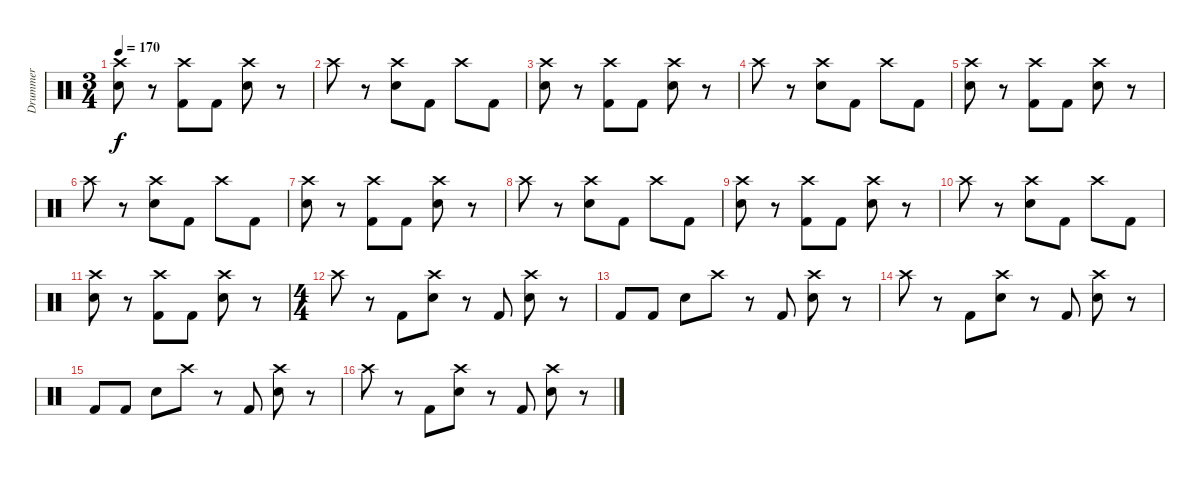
\track ("Drummer" "Drummer") {instrument percussion}
\staff {score}
\articulation defaults
\ts (3 4)
\tempo 170
\clef neutral
\ks c
("Crash high (hit)" "Electric Snare (hit)").8{dy f} r.8 ("Crash high (hit)" "Kick (hit) 2").8 "Kick (hit) 2".8 ("Crash high (hit)" "Electric Snare (hit)").8 r.8 |
"Crash high (hit)".8 r.8 ("Crash high (hit)" "Electric Snare (hit)").8 "Kick (hit) 2".8 "Crash high (hit)".8 "Kick (hit) 2".8 |
("Crash high (hit)" "Electric Snare (hit)").8 r.8 ("Crash high (hit)" "Kick (hit) 2").8 "Kick (hit) 2".8 ("Crash high (hit)" "Electric Snare (hit)").8 r.8 |
"Crash high (hit)".8 r.8 ("Crash high (hit)" "Electric Snare (hit)").8 "Kick (hit) 2".8 "Crash high (hit)".8 "Kick (hit) 2".8 |
("Crash high (hit)" "Electric Snare (hit)").8 r.8 ("Crash high (hit)" "Kick (hit) 2").8 "Kick (hit) 2".8 ("Crash high (hit)" "Electric Snare (hit)").8 r.8 |
"Crash high (hit)".8 r.8 ("Crash high (hit)" "Electric Snare (hit)").8 "Kick (hit) 2".8 "Crash high (hit)".8 "Kick (hit) 2".8 |
("Crash high (hit)" "Electric Snare (hit)").8 r.8 ("Crash high (hit)" "Kick (hit) 2").8 "Kick (hit) 2".8 ("Crash high (hit)" "Electric Snare (hit)").8 r.8 |
"Crash high (hit)".8 r.8 ("Crash high (hit)" "Electric Snare (hit)").8 "Kick (hit) 2".8 "Crash high (hit)".8 "Kick (hit) 2".8 |
("Crash high (hit)" "Electric Snare (hit)").8 r.8 ("Crash high (hit)" "Kick (hit) 2").8 "Kick (hit) 2".8 ("Crash high (hit)" "Electric Snare (hit)").8 r.8 |
"Crash high (hit)".8 r.8 ("Crash high (hit)" "Electric Snare (hit)").8 "Kick (hit) 2".8 "Crash high (hit)".8 "Kick (hit) 2".8 |
("Crash high (hit)" "Electric Snare (hit)").8 r.8 ("Crash high (hit)" "Kick (hit) 2").8 "Kick (hit) 2".8 ("Crash high (hit)" "Electric Snare (hit)").8 r.8 |
\ts (4 4)
"Crash high (hit)".8 r.8 "Kick (hit) 2".8 ("Crash high (hit)" "Electric Snare (hit)").8 r.8 "Kick (hit) 2".8 ("Crash high (hit)" "Electric Snare (hit)").8 r.8 |
"Kick (hit) 2".8 "Kick (hit) 2".8 "Electric Snare (hit)".8 "Crash high (hit)".8 r.8 "Kick (hit) 2".8 ("Crash high (hit)" "Electric Snare (hit)").8 r.8 |
"Crash high (hit)".8 r.8 "Kick (hit) 2".8 ("Crash high (hit)" "Electric Snare (hit)").8 r.8 "Kick (hit) 2".8 ("Crash high (hit)" "Electric Snare (hit)").8 r.8 |
"Kick (hit) 2".8 "Kick (hit) 2".8 "Electric Snare (hit)".8 "Crash high (hit)".8 r.8 "Kick (hit) 2".8 ("Crash high (hit)" "Electric Snare (hit)").8 r.8 |
"Crash high (hit)".8 r.8 "Kick (hit) 2".8 ("Crash high (hit)" "Electric Snare (hit)").8 r.8 "Kick (hit) 2".8 ("Crash high (hit)" "Electric Snare (hit)").8 r.8
